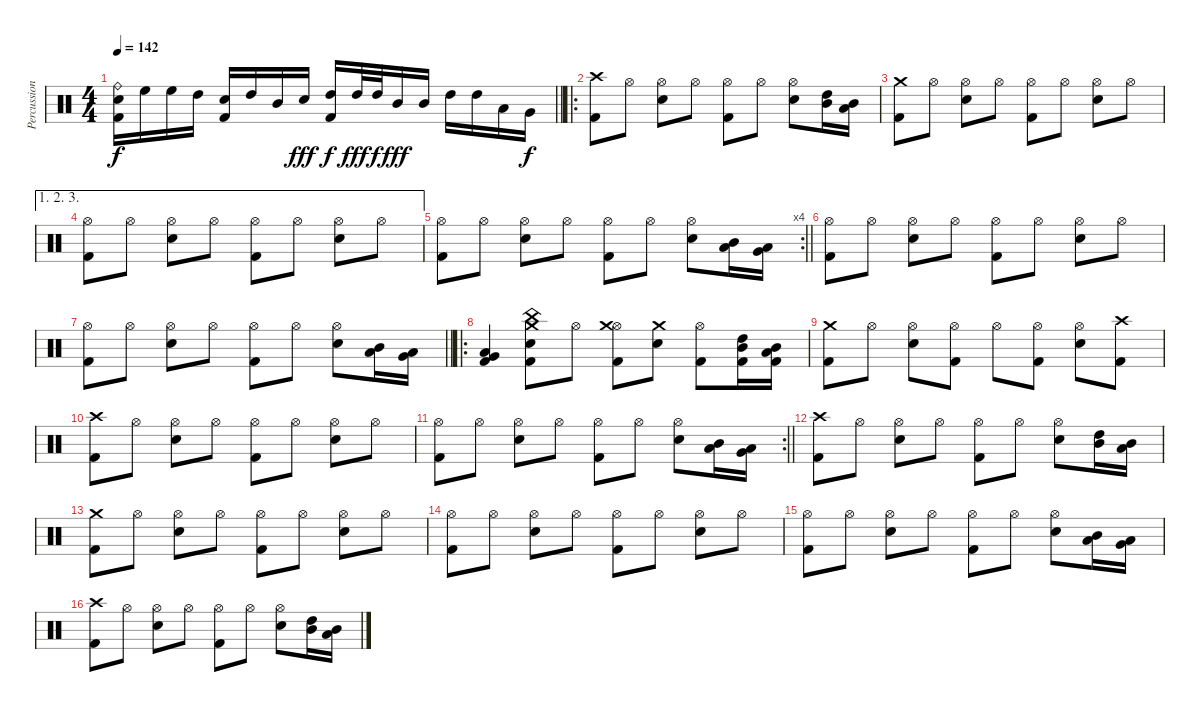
\track ("Percussions" "Percussion") {instrument percussion}
\staff {score}
\articulation defaults
\ts (4 4)
\tempo 142
\clef neutral
\barLineRight lightlight
\ks c
("Ride (bell)" "Electric Snare (hit)" "Kick (hit) 2").16{dy f} "High Floor Tom (hit)".16 "High Floor Tom (hit)".16 "High Tom (hit)".16 ("Electric Snare (hit)" "Kick (hit) 2").16 "High Tom (hit)".16 "Mid Tom (hit)".16 "Electric Snare (hit)".16{dy fff} ("High Tom (hit)" "Kick (hit) 2").16{dy f} "High Tom (hit)".32{dy fff} "High Tom (hit)".32{dy f} "Mid Tom (hit)".16{dy fff} "Mid Tom (hit)".16 "High Tom (hit)".16 "High Tom (hit)".16 "Low Tom (hit)".16 "Very Low Tom (hit)".16{dy f} |
\ro
\section ("" "")
("Crash high (hit)" "Kick (hit) 2").8 "Hi-Hat (open)".8 ("Hi-Hat (open)" "Electric Snare (hit)").8 "Hi-Hat (open)".8 ("Hi-Hat (open)" "Kick (hit) 2").8 "Hi-Hat (open)".8 ("Hi-Hat (open)" "Electric Snare (hit)").8 ("High Tom (hit)" "Mid Tom (hit)").16 ("Mid Tom (hit)" "Low Tom (hit)").16 |
("Crash medium (hit)" "Kick (hit) 2").8 "Hi-Hat (open)".8 ("Hi-Hat (open)" "Electric Snare (hit)").8 "Hi-Hat (open)".8 ("Hi-Hat (open)" "Kick (hit) 2").8 "Hi-Hat (open)".8 ("Hi-Hat (open)" "Electric Snare (hit)").8 "Hi-Hat (open)".8 |
\ae (1 2 3)
("Hi-Hat (open)" "Kick (hit) 2").8 "Hi-Hat (open)".8 ("Hi-Hat (open)" "Electric Snare (hit)").8 "Hi-Hat (open)".8 ("Hi-Hat (open)" "Kick (hit) 2").8 "Hi-Hat (open)".8 ("Hi-Hat (open)" "Electric Snare (hit)").8 "Hi-Hat (open)".8 |
\rc 4
\barLineRight lightlight
("Hi-Hat (open)" "Kick (hit) 2").8 "Hi-Hat (open)".8 ("Hi-Hat (open)" "Electric Snare (hit)").8 "Hi-Hat (open)".8 ("Hi-Hat (open)" "Kick (hit) 2").8 "Hi-Hat (open)".8 ("Hi-Hat (open)" "Electric Snare (hit)").8 ("Mid Tom (hit)" "Low Tom (hit)").16 ("Low Tom (hit)" "Very Low Tom (hit)").16 |
("Hi-Hat (open)" "Kick (hit) 2").8 "Hi-Hat (open)".8 ("Hi-Hat (open)" "Electric Snare (hit)").8 "Hi-Hat (open)".8 ("Hi-Hat (open)" "Kick (hit) 2").8 "Hi-Hat (open)".8 ("Hi-Hat (open)" "Electric Snare (hit)").8 "Hi-Hat (open)".8 |
\barLineRight lightlight
("Hi-Hat (open)" "Kick (hit) 2").8 "Hi-Hat (open)".8 ("Hi-Hat (open)" "Electric Snare (hit)").8 "Hi-Hat (open)".8 ("Hi-Hat (open)" "Kick (hit) 2").8 "Hi-Hat (open)".8 ("Hi-Hat (open)" "Electric Snare (hit)").8 ("Mid Tom (hit)" "Low Tom (hit)").16 ("Low Tom (hit)" "Very Low Tom (hit)").16 |
\ro
\section ("" "")
("Low Tom (hit)" "Very Low Tom (hit)" "Kick (hit) 2").4 ("Crash medium (hit)" "China (hit)" "Electric Snare (hit)" "Kick (hit) 2").8 "Hi-Hat (open)".8 ("Hi-Hat (open)" "Crash medium (hit)" "Kick (hit) 2").8 ("Crash medium (hit)" "Electric Snare (hit)").8 ("Hi-Hat (open)" "Kick (hit) 2").8 ("High Tom (hit)" "Mid Tom (hit)" "Kick (hit) 2").16 ("Mid Tom (hit)" "Low Tom (hit)" "Kick (hit) 2").16 |
("Crash medium (hit)" "Kick (hit) 2").8 "Hi-Hat (open)".8 ("Hi-Hat (open)" "Electric Snare (hit)").8 ("Hi-Hat (open)" "Kick (hit) 2").8 "Hi-Hat (open)".8 ("Hi-Hat (open)" "Kick (hit) 2").8 ("Hi-Hat (open)" "Electric Snare (hit)").8 ("Crash high (hit)" "Kick (hit) 2").8 |
("Crash high (hit)" "Kick (hit) 2").8 "Hi-Hat (open)".8 ("Hi-Hat (open)" "Electric Snare (hit)").8 "Hi-Hat (open)".8 ("Hi-Hat (open)" "Kick (hit) 2").8 "Hi-Hat (open)".8 ("Hi-Hat (open)" "Electric Snare (hit)").8 "Hi-Hat (open)".8 |
\rc 2
\barLineRight lightlight
("Hi-Hat (open)" "Kick (hit) 2").8 "Hi-Hat (open)".8 ("Hi-Hat (open)" "Electric Snare (hit)").8 "Hi-Hat (open)".8 ("Hi-Hat (open)" "Kick (hit) 2").8 "Hi-Hat (open)".8 ("Hi-Hat (open)" "Electric Snare (hit)").8 ("Mid Tom (hit)" "Low Tom (hit)").16 ("Low Tom (hit)" "Very Low Tom (hit)").16 |
\section ("" "")
("Crash high (hit)" "Kick (hit) 2").8 "Hi-Hat (open)".8 ("Hi-Hat (open)" "Electric Snare (hit)").8 "Hi-Hat (open)".8 ("Hi-Hat (open)" "Kick (hit) 2").8 "Hi-Hat (open)".8 ("Hi-Hat (open)" "Electric Snare (hit)").8 ("High Tom (hit)" "Mid Tom (hit)").16 ("Mid Tom (hit)" "Low Tom (hit)").16 |
("Crash medium (hit)" "Kick (hit) 2").8 "Hi-Hat (open)".8 ("Hi-Hat (open)" "Electric Snare (hit)").8 "Hi-Hat (open)".8 ("Hi-Hat (open)" "Kick (hit) 2").8 "Hi-Hat (open)".8 ("Hi-Hat (open)" "Electric Snare (hit)").8 "Hi-Hat (open)".8 |
("Hi-Hat (open)" "Kick (hit) 2").8 "Hi-Hat (open)".8 ("Hi-Hat (open)" "Electric Snare (hit)").8 "Hi-Hat (open)".8 ("Hi-Hat (open)" "Kick (hit) 2").8 "Hi-Hat (open)".8 ("Hi-Hat (open)" "Electric Snare (hit)").8 "Hi-Hat (open)".8 |
("Hi-Hat (open)" "Kick (hit) 2").8 "Hi-Hat (open)".8 ("Hi-Hat (open)" "Electric Snare (hit)").8 "Hi-Hat (open)".8 ("Hi-Hat (open)" "Kick (hit) 2").8 "Hi-Hat (open)".8 ("Hi-Hat (open)" "Electric Snare (hit)").8 ("Mid Tom (hit)" "Low Tom (hit)").16 ("Low Tom (hit)" "Very Low Tom (hit)").16 |
("Crash high (hit)" "Kick (hit) 2").8 "Hi-Hat (open)".8 ("Hi-Hat (open)" "Electric Snare (hit)").8 "Hi-Hat (open)".8 ("Hi-Hat (open)" "Kick (hit) 2").8 "Hi-Hat (open)".8 ("Hi-Hat (open)" "Electric Snare (hit)").8 ("High Tom (hit)" "Mid Tom (hit)").16 ("Mid Tom (hit)" "Low Tom (hit)").16
